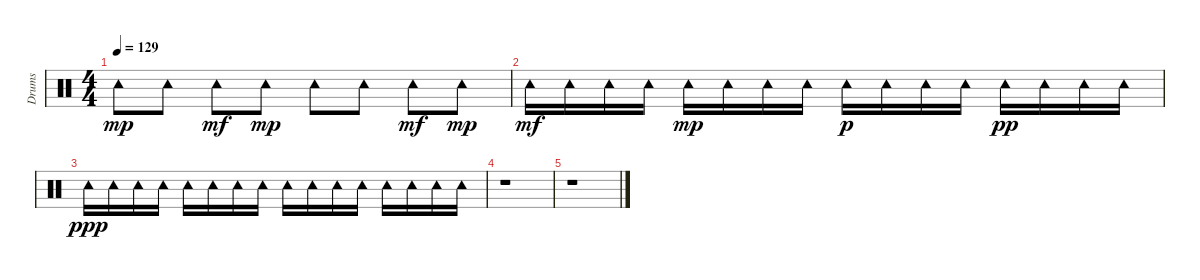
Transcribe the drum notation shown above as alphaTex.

\track ("Drums" "Drums") {instrument percussion}
\staff {score}
\articulation defaults
\ts (4 4)
\tempo 129
\clef neutral
\ks c "Tambourine (hit)".8{dy mp} "Tambourine (hit)".8 "Tambourine (hit)".8{dy mf} "Tambourine (hit)".8{dy mp} "Tambourine (hit)".8 "Tambourine (hit)".8 "Tambourine (hit)".8{dy mf} "Tambourine (hit)".8{dy mp}
|
"Tambourine (hit)".16{dy mf} "Tambourine (hit)".16 "Tambourine (hit)".16 "Tambourine (hit)".16 "Tambourine (hit)".16{dy mp} "Tambourine (hit)".16 "Tambourine (hit)".16 "Tambourine (hit)".16 "Tambourine (hit)".16{dy p} "Tambourine (hit)".16 "Tambourine (hit)".16 "Tambourine (hit)".16 "Tambourine (hit)".16{dy pp} "Tambourine (hit)".16 "Tambourine (hit)".16 "Tambourine (hit)".16 |
"Tambourine (hit)".16{dy ppp} "Tambourine (hit)".16 "Tambourine (hit)".16 "Tambourine (hit)".16 "Tambourine (hit)".16 "Tambourine (hit)".16 "Tambourine (hit)".16 "Tambourine (hit)".16 "Tambourine (hit)".16 "Tambourine (hit)".16 "Tambourine (hit)".16 "Tambourine (hit)".16 "Tambourine (hit)".16 "Tambourine (hit)".16 "Tambourine (hit)".16 "Tambourine (hit)".16 |
r.1 |
r.1
